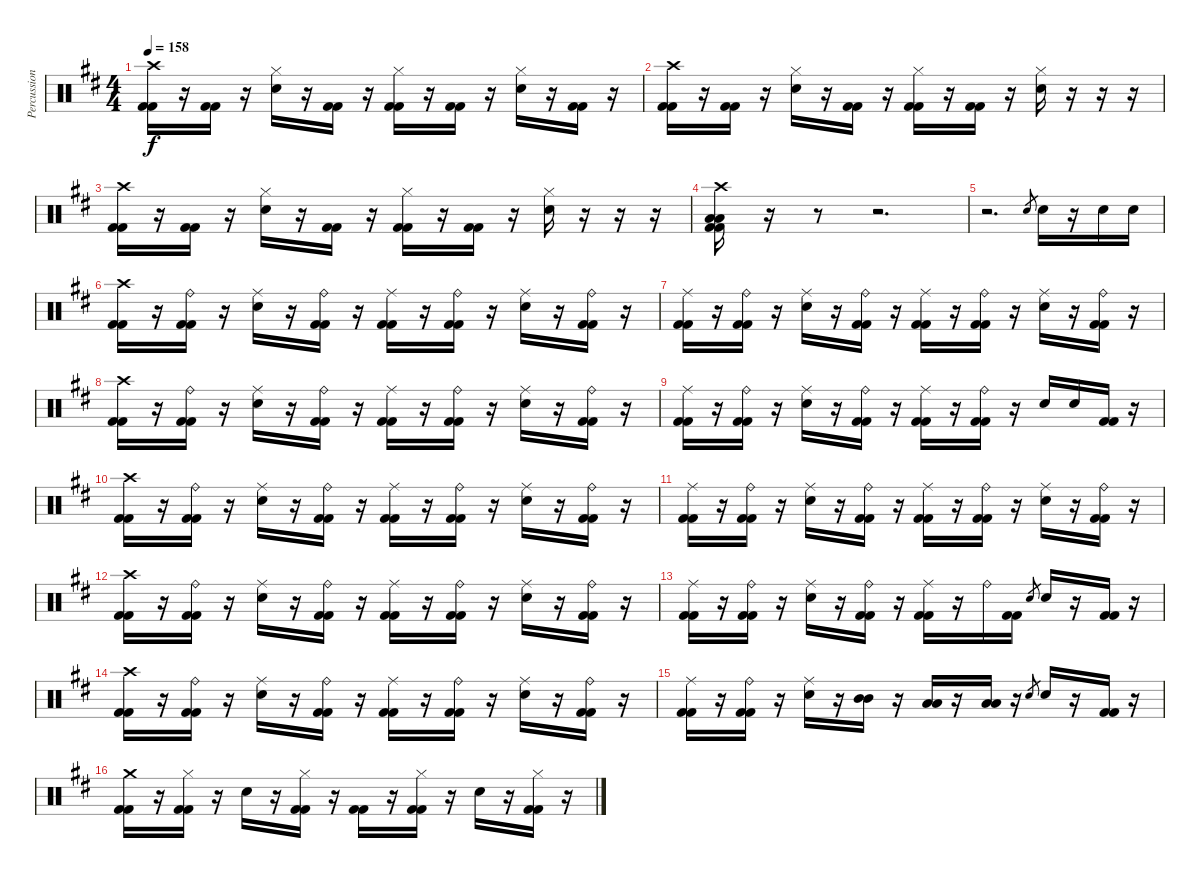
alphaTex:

\track ("Percussion" "Percussion") {instrument percussion}
\staff {score}
\articulation defaults
\ts (4 4)
\tempo 158
\clef neutral
\ks d
("Crash high (hit)" "Kick (hit) 2" "Kick (hit) 2").16{dy f} r.16 ("Kick (hit) 2" "Kick (hit) 2").16 r.16 ("Hi-Hat (closed)" "Electric Snare (hit)").16 r.16 ("Kick (hit) 2" "Kick (hit) 2").16 r.16 ("Hi-Hat (closed)" "Kick (hit) 2" "Kick (hit) 2").16 r.16 ("Kick (hit) 2" "Kick (hit) 2").16 r.16 ("Hi-Hat (closed)" "Electric Snare (hit)").16 r.16 ("Kick (hit) 2" "Kick (hit) 2").16 r.16 |
("Crash high (hit)" "Kick (hit) 2" "Kick (hit) 2").16 r.16 ("Kick (hit) 2" "Kick (hit) 2").16 r.16 ("Hi-Hat (closed)" "Electric Snare (hit)").16 r.16 ("Kick (hit) 2" "Kick (hit) 2").16 r.16 ("Hi-Hat (closed)" "Kick (hit) 2" "Kick (hit) 2").16 r.16 ("Kick (hit) 2" "Kick (hit) 2").16 r.16 ("Hi-Hat (closed)" "Electric Snare (hit)").16 r.16 r.16 r.16 |
("Crash high (hit)" "Kick (hit) 2" "Kick (hit) 2").16 r.16 ("Kick (hit) 2" "Kick (hit) 2").16 r.16 ("Hi-Hat (closed)" "Electric Snare (hit)").16 r.16 ("Kick (hit) 2" "Kick (hit) 2").16 r.16 ("Hi-Hat (closed)" "Kick (hit) 2" "Kick (hit) 2").16 r.16 ("Kick (hit) 2" "Kick (hit) 2").16 r.16 ("Hi-Hat (closed)" "Electric Snare (hit)").16 r.16 r.16 r.16 |
("Crash high (hit)" "Low Floor Tom (hit)" "Low Floor Tom (hit)" "Kick (hit) 2" "Kick (hit) 2").16 r.16 r.8 r.2{d} |
r.2{d} "Electric Snare (hit)".8{gr} "Electric Snare (hit)".16 r.16 "Electric Snare (hit)".16 "Electric Snare (hit)".16 |
("Crash high (hit)" "Kick (hit) 2" "Kick (hit) 2").16 r.16 ("Ride (bell)" "Kick (hit) 2" "Kick (hit) 2").16 r.16 ("Ride (middle)" "Electric Snare (hit)").16 r.16 ("Ride (bell)" "Kick (hit) 2" "Kick (hit) 2").16 r.16 ("Ride (middle)" "Kick (hit) 2" "Kick (hit) 2").16 r.16 ("Ride (bell)" "Kick (hit) 2" "Kick (hit) 2").16 r.16 ("Ride (middle)" "Electric Snare (hit)").16 r.16 ("Ride (bell)" "Kick (hit) 2" "Kick (hit) 2").16 r.16 |
("Ride (middle)" "Kick (hit) 2" "Kick (hit) 2").16 r.16 ("Ride (bell)" "Kick (hit) 2" "Kick (hit) 2").16 r.16 ("Ride (middle)" "Electric Snare (hit)").16 r.16 ("Ride (bell)" "Kick (hit) 2" "Kick (hit) 2").16 r.16 ("Ride (middle)" "Kick (hit) 2" "Kick (hit) 2").16 r.16 ("Ride (bell)" "Kick (hit) 2" "Kick (hit) 2").16 r.16 ("Ride (middle)" "Electric Snare (hit)").16 r.16 ("Ride (bell)" "Kick (hit) 2" "Kick (hit) 2").16 r.16 |
("Crash high (hit)" "Kick (hit) 2" "Kick (hit) 2").16 r.16 ("Ride (bell)" "Kick (hit) 2" "Kick (hit) 2").16 r.16 ("Ride (middle)" "Electric Snare (hit)").16 r.16 ("Ride (bell)" "Kick (hit) 2" "Kick (hit) 2").16 r.16 ("Ride (middle)" "Kick (hit) 2" "Kick (hit) 2").16 r.16 ("Ride (bell)" "Kick (hit) 2" "Kick (hit) 2").16 r.16 ("Ride (middle)" "Electric Snare (hit)").16 r.16 ("Ride (bell)" "Kick (hit) 2" "Kick (hit) 2").16 r.16 |
("Ride (middle)" "Kick (hit) 2" "Kick (hit) 2").16 r.16 ("Ride (bell)" "Kick (hit) 2" "Kick (hit) 2").16 r.16 ("Ride (middle)" "Electric Snare (hit)").16 r.16 ("Ride (bell)" "Kick (hit) 2" "Kick (hit) 2").16 r.16 ("Ride (middle)" "Kick (hit) 2" "Kick (hit) 2").16 r.16 ("Ride (bell)" "Kick (hit) 2" "Kick (hit) 2").16 r.16 "Electric Snare (hit)".16 "Electric Snare (hit)".16 ("Kick (hit) 2" "Kick (hit) 2").16 r.16 |
("Crash high (hit)" "Kick (hit) 2" "Kick (hit) 2").16 r.16 ("Ride (bell)" "Kick (hit) 2" "Kick (hit) 2").16 r.16 ("Ride (middle)" "Electric Snare (hit)").16 r.16 ("Ride (bell)" "Kick (hit) 2" "Kick (hit) 2").16 r.16 ("Ride (middle)" "Kick (hit) 2" "Kick (hit) 2").16 r.16 ("Ride (bell)" "Kick (hit) 2" "Kick (hit) 2").16 r.16 ("Ride (middle)" "Electric Snare (hit)").16 r.16 ("Ride (bell)" "Kick (hit) 2" "Kick (hit) 2").16 r.16 |
("Ride (middle)" "Kick (hit) 2" "Kick (hit) 2").16 r.16 ("Ride (bell)" "Kick (hit) 2" "Kick (hit) 2").16 r.16 ("Ride (middle)" "Electric Snare (hit)").16 r.16 ("Ride (bell)" "Kick (hit) 2" "Kick (hit) 2").16 r.16 ("Ride (middle)" "Kick (hit) 2" "Kick (hit) 2").16 r.16 ("Ride (bell)" "Kick (hit) 2" "Kick (hit) 2").16 r.16 ("Ride (middle)" "Electric Snare (hit)").16 r.16 ("Ride (bell)" "Kick (hit) 2" "Kick (hit) 2").16 r.16 |
("Crash high (hit)" "Kick (hit) 2" "Kick (hit) 2").16 r.16 ("Ride (bell)" "Kick (hit) 2" "Kick (hit) 2").16 r.16 ("Ride (middle)" "Electric Snare (hit)").16 r.16 ("Ride (bell)" "Kick (hit) 2" "Kick (hit) 2").16 r.16 ("Ride (middle)" "Kick (hit) 2" "Kick (hit) 2").16 r.16 ("Ride (bell)" "Kick (hit) 2" "Kick (hit) 2").16 r.16 ("Ride (middle)" "Electric Snare (hit)").16 r.16 ("Ride (bell)" "Kick (hit) 2" "Kick (hit) 2").16 r.16 |
("Ride (middle)" "Kick (hit) 2" "Kick (hit) 2").16 r.16 ("Ride (bell)" "Kick (hit) 2" "Kick (hit) 2").16 r.16 ("Ride (middle)" "Electric Snare (hit)").16 r.16 ("Ride (bell)" "Kick (hit) 2" "Kick (hit) 2").16 r.16 ("Ride (middle)" "Kick (hit) 2" "Kick (hit) 2").16 r.16 "Ride (bell)".16 ("Kick (hit) 2" "Kick (hit) 2").16 "Electric Snare (hit)".8{gr} "Electric Snare (hit)".16 r.16 ("Kick (hit) 2" "Kick (hit) 2").16 r.16 |
("Crash high (hit)" "Kick (hit) 2" "Kick (hit) 2").16 r.16 ("Ride (bell)" "Kick (hit) 2" "Kick (hit) 2").16 r.16 ("Ride (middle)" "Electric Snare (hit)").16 r.16 ("Ride (bell)" "Kick (hit) 2" "Kick (hit) 2").16 r.16 ("Ride (middle)" "Kick (hit) 2" "Kick (hit) 2").16 r.16 ("Ride (bell)" "Kick (hit) 2" "Kick (hit) 2").16 r.16 ("Ride (middle)" "Electric Snare (hit)").16 r.16 ("Ride (bell)" "Kick (hit) 2" "Kick (hit) 2").16 r.16 |
("Ride (middle)" "Kick (hit) 2" "Kick (hit) 2").16 r.16 ("Ride (bell)" "Kick (hit) 2" "Kick (hit) 2").16 r.16 ("Ride (middle)" "Electric Snare (hit)").16 r.16 ("Mid Tom (hit)" "Mid Tom (hit)").16 r.16 ("Low Tom (hit)" "Low Tom (hit)").16 r.16 ("Low Floor Tom (hit)" "Low Floor Tom (hit)").16 r.16 "Electric Snare (hit)".8{gr} "Electric Snare (hit)".16 r.16 ("Kick (hit) 2" "Kick (hit) 2").16 r.16 |
("Crash medium (hit)" "Kick (hit) 2" "Kick (hit) 2").16 r.16 ("Hi-Hat (closed)" "Kick (hit) 2" "Kick (hit) 2").16 r.16 "Electric Snare (hit)".16 r.16 ("Hi-Hat (closed)" "Kick (hit) 2" "Kick (hit) 2").16 r.16 ("Kick (hit) 2" "Kick (hit) 2").16 r.16 ("Hi-Hat (closed)" "Kick (hit) 2" "Kick (hit) 2").16 r.16 "Electric Snare (hit)".16 r.16 ("Hi-Hat (closed)" "Kick (hit) 2" "Kick (hit) 2").16 r.16
